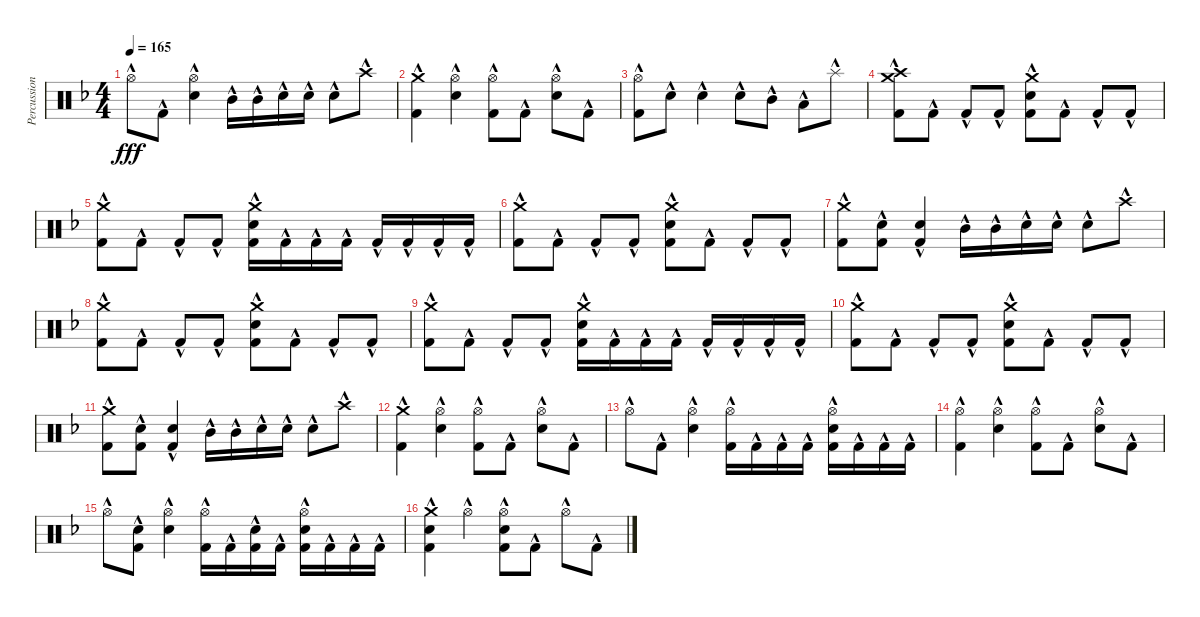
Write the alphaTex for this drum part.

\track ("Percussion" "Percussion") {instrument percussion}
\staff {score}
\articulation defaults
\ts (4 4)
\tempo 165
\clef neutral
\ks f "Hi-Hat (open)"{hac}.8{dy fff} "Kick (hit) 2"{hac}.8
("Hi-Hat (open)"{hac} "Electric Snare (hit)"{hac}).4 "Mid Tom (hit)"{hac}.16 "Mid Tom (hit)"{hac}.16 "Electric Snare (hit)"{hac}.16 "Electric Snare (hit)"{hac}.16 "Electric Snare (hit)"{hac}.8 "Crash high (hit)"{hac}.8 |
("Crash medium (hit)"{hac} "Kick (hit) 2"{hac}).4 ("Hi-Hat (open)"{hac} "Electric Snare (hit)"{hac}).4 ("Hi-Hat (open)"{hac} "Kick (hit) 2"{hac}).8 "Kick (hit) 2"{hac}.8 ("Hi-Hat (open)"{hac} "Electric Snare (hit)"{hac}).8 "Kick (hit) 2"{hac}.8 |
("Hi-Hat (open)"{hac} "Kick (hit) 2"{hac}).8 "Electric Snare (hit)"{hac}.8 "Electric Snare (hit)"{hac}.4 "Electric Snare (hit)"{hac}.8 "Mid Tom (hit)"{hac}.8 "Low Tom (hit)"{hac}.8 "Splash (hit)"{hac}.8 |
("Crash medium (hit)"{hac} "Crash high (hit)"{hac} "Kick (hit) 2"{hac}).8 "Kick (hit) 2"{hac}.8 "Kick (hit) 2"{hac}.8 "Kick (hit) 2"{hac}.8 ("Crash medium (hit)"{hac} "Electric Snare (hit)"{hac} "Kick (hit) 2"{hac}).8 "Kick (hit) 2"{hac}.8 "Kick (hit) 2"{hac}.8 "Kick (hit) 2"{hac}.8 |
("Crash medium (hit)"{hac} "Kick (hit) 2"{hac}).8 "Kick (hit) 2"{hac}.8 "Kick (hit) 2"{hac}.8 "Kick (hit) 2"{hac}.8 ("Crash medium (hit)"{hac} "Electric Snare (hit)"{hac} "Kick (hit) 2"{hac}).16 "Kick (hit) 2"{hac}.16 "Kick (hit) 2"{hac}.16 "Kick (hit) 2"{hac}.16 "Kick (hit) 2"{hac}.16 "Kick (hit) 2"{hac}.16 "Kick (hit) 2"{hac}.16 "Kick (hit) 2"{hac}.16 |
("Crash medium (hit)"{hac} "Kick (hit) 2"{hac}).8 "Kick (hit) 2"{hac}.8 "Kick (hit) 2"{hac}.8 "Kick (hit) 2"{hac}.8 ("Crash medium (hit)"{hac} "Electric Snare (hit)"{hac} "Kick (hit) 2"{hac}).8 "Kick (hit) 2"{hac}.8 "Kick (hit) 2"{hac}.8 "Kick (hit) 2"{hac}.8 |
("Crash medium (hit)"{hac} "Kick (hit) 2"{hac}).8 ("Electric Snare (hit)"{hac} "Kick (hit) 2"{hac}).8 ("Electric Snare (hit)"{hac} "Kick (hit) 2"{hac}).4 "Mid Tom (hit)"{hac}.16 "Mid Tom (hit)"{hac}.16 "Electric Snare (hit)"{hac}.16 "Electric Snare (hit)"{hac}.16 "Electric Snare (hit)"{hac}.8 "Crash high (hit)"{hac}.8 |
("Crash medium (hit)"{hac} "Kick (hit) 2"{hac}).8 "Kick (hit) 2"{hac}.8 "Kick (hit) 2"{hac}.8 "Kick (hit) 2"{hac}.8 ("Crash medium (hit)"{hac} "Electric Snare (hit)"{hac} "Kick (hit) 2"{hac}).8 "Kick (hit) 2"{hac}.8 "Kick (hit) 2"{hac}.8 "Kick (hit) 2"{hac}.8 |
("Crash medium (hit)"{hac} "Kick (hit) 2"{hac}).8 "Kick (hit) 2"{hac}.8 "Kick (hit) 2"{hac}.8 "Kick (hit) 2"{hac}.8 ("Crash medium (hit)"{hac} "Electric Snare (hit)"{hac} "Kick (hit) 2"{hac}).16 "Kick (hit) 2"{hac}.16 "Kick (hit) 2"{hac}.16 "Kick (hit) 2"{hac}.16 "Kick (hit) 2"{hac}.16 "Kick (hit) 2"{hac}.16 "Kick (hit) 2"{hac}.16 "Kick (hit) 2"{hac}.16 |
("Crash medium (hit)"{hac} "Kick (hit) 2"{hac}).8 "Kick (hit) 2"{hac}.8 "Kick (hit) 2"{hac}.8 "Kick (hit) 2"{hac}.8 ("Crash medium (hit)"{hac} "Electric Snare (hit)"{hac} "Kick (hit) 2"{hac}).8 "Kick (hit) 2"{hac}.8 "Kick (hit) 2"{hac}.8 "Kick (hit) 2"{hac}.8 |
("Crash medium (hit)"{hac} "Kick (hit) 2"{hac}).8 ("Electric Snare (hit)"{hac} "Kick (hit) 2"{hac}).8 ("Electric Snare (hit)"{hac} "Kick (hit) 2"{hac}).4 "Mid Tom (hit)"{hac}.16 "Mid Tom (hit)"{hac}.16 "Electric Snare (hit)"{hac}.16 "Electric Snare (hit)"{hac}.16 "Electric Snare (hit)"{hac}.8 "Crash high (hit)"{hac}.8 |
("Crash medium (hit)"{hac} "Kick (hit) 2"{hac}).4 ("Hi-Hat (open)"{hac} "Electric Snare (hit)"{hac}).4 ("Hi-Hat (open)"{hac} "Kick (hit) 2"{hac}).8 "Kick (hit) 2"{hac}.8 ("Hi-Hat (open)"{hac} "Electric Snare (hit)"{hac}).8 "Kick (hit) 2"{hac}.8 |
"Hi-Hat (open)"{hac}.8 "Kick (hit) 2"{hac}.8 ("Hi-Hat (open)"{hac} "Electric Snare (hit)"{hac}).4 ("Hi-Hat (open)"{hac} "Kick (hit) 2"{hac}).16 "Kick (hit) 2"{hac}.16 "Kick (hit) 2"{hac}.16 "Kick (hit) 2"{hac}.16 ("Hi-Hat (open)"{hac} "Electric Snare (hit)"{hac} "Kick (hit) 2"{hac}).16 "Kick (hit) 2"{hac}.16 "Kick (hit) 2"{hac}.16 "Kick (hit) 2"{hac}.16 |
("Hi-Hat (open)"{hac} "Kick (hit) 2"{hac}).4 ("Hi-Hat (open)"{hac} "Electric Snare (hit)"{hac}).4 ("Hi-Hat (open)"{hac} "Kick (hit) 2"{hac}).8 "Kick (hit) 2"{hac}.8 ("Hi-Hat (open)"{hac} "Electric Snare (hit)"{hac}).8 "Kick (hit) 2"{hac}.8 |
"Hi-Hat (open)"{hac}.8 ("Electric Snare (hit)"{hac} "Kick (hit) 2"{hac}).8 ("Hi-Hat (open)"{hac} "Electric Snare (hit)"{hac}).4 ("Hi-Hat (open)"{hac} "Kick (hit) 2"{hac}).16 "Kick (hit) 2"{hac}.16 ("Electric Snare (hit)"{hac} "Kick (hit) 2"{hac}).16 "Kick (hit) 2"{hac}.16 ("Hi-Hat (open)"{hac} "Electric Snare (hit)"{hac} "Kick (hit) 2"{hac}).16 "Kick (hit) 2"{hac}.16 "Kick (hit) 2"{hac}.16 "Kick (hit) 2"{hac}.16 |
("Crash medium (hit)"{hac} "Electric Snare (hit)"{hac} "Kick (hit) 2"{hac}).4 "Hi-Hat (open)"{hac}.4 ("Hi-Hat (open)"{hac} "Electric Snare (hit)"{hac} "Kick (hit) 2"{hac}).8 "Kick (hit) 2"{hac}.8 "Hi-Hat (open)"{hac}.8 "Kick (hit) 2"{hac}.8
